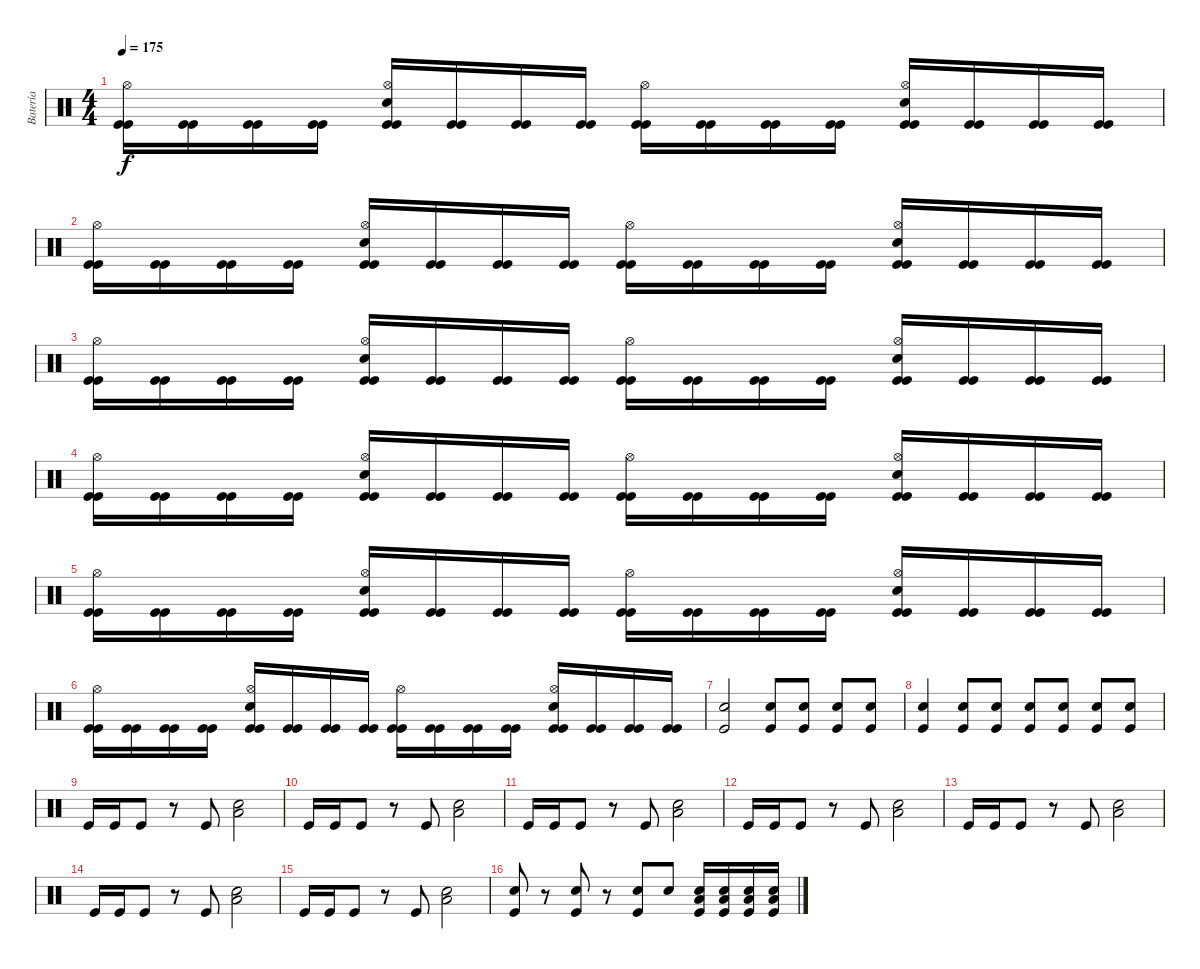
\track ("Batería" "Batería") {instrument percussion}
\staff {score}
\articulation defaults
\ts (4 4)
\tempo 175
\clef neutral
\ks c
("Kick (hit)" "Kick (hit)" "Hi-Hat (open)").16{dy f} ("Kick (hit)" "Kick (hit)").16 ("Kick (hit)" "Kick (hit)").16 ("Kick (hit)" "Kick (hit)").16 ("Kick (hit)" "Kick (hit)" "Snare (hit) 2" "Hi-Hat (open)").16 ("Kick (hit)" "Kick (hit)").16 ("Kick (hit)" "Kick (hit)").16 ("Kick (hit)" "Kick (hit)").16 ("Kick (hit)" "Kick (hit)" "Hi-Hat (open)").16 ("Kick (hit)" "Kick (hit)").16 ("Kick (hit)" "Kick (hit)").16 ("Kick (hit)" "Kick (hit)").16 ("Kick (hit)" "Kick (hit)" "Snare (hit) 2" "Hi-Hat (open)").16 ("Kick (hit)" "Kick (hit)").16 ("Kick (hit)" "Kick (hit)").16 ("Kick (hit)" "Kick (hit)").16 |
("Kick (hit)" "Kick (hit)" "Hi-Hat (open)").16 ("Kick (hit)" "Kick (hit)").16 ("Kick (hit)" "Kick (hit)").16 ("Kick (hit)" "Kick (hit)").16 ("Kick (hit)" "Kick (hit)" "Snare (hit) 2" "Hi-Hat (open)").16 ("Kick (hit)" "Kick (hit)").16 ("Kick (hit)" "Kick (hit)").16 ("Kick (hit)" "Kick (hit)").16 ("Kick (hit)" "Kick (hit)" "Hi-Hat (open)").16 ("Kick (hit)" "Kick (hit)").16 ("Kick (hit)" "Kick (hit)").16 ("Kick (hit)" "Kick (hit)").16 ("Kick (hit)" "Kick (hit)" "Snare (hit) 2" "Hi-Hat (open)").16 ("Kick (hit)" "Kick (hit)").16 ("Kick (hit)" "Kick (hit)").16 ("Kick (hit)" "Kick (hit)").16 |
("Kick (hit)" "Kick (hit)" "Hi-Hat (open)").16 ("Kick (hit)" "Kick (hit)").16 ("Kick (hit)" "Kick (hit)").16 ("Kick (hit)" "Kick (hit)").16 ("Kick (hit)" "Kick (hit)" "Snare (hit) 2" "Hi-Hat (open)").16 ("Kick (hit)" "Kick (hit)").16 ("Kick (hit)" "Kick (hit)").16 ("Kick (hit)" "Kick (hit)").16 ("Kick (hit)" "Kick (hit)" "Hi-Hat (open)").16 ("Kick (hit)" "Kick (hit)").16 ("Kick (hit)" "Kick (hit)").16 ("Kick (hit)" "Kick (hit)").16 ("Kick (hit)" "Kick (hit)" "Snare (hit) 2" "Hi-Hat (open)").16 ("Kick (hit)" "Kick (hit)").16 ("Kick (hit)" "Kick (hit)").16 ("Kick (hit)" "Kick (hit)").16 |
("Kick (hit)" "Kick (hit)" "Hi-Hat (open)").16 ("Kick (hit)" "Kick (hit)").16 ("Kick (hit)" "Kick (hit)").16 ("Kick (hit)" "Kick (hit)").16 ("Kick (hit)" "Kick (hit)" "Snare (hit) 2" "Hi-Hat (open)").16 ("Kick (hit)" "Kick (hit)").16 ("Kick (hit)" "Kick (hit)").16 ("Kick (hit)" "Kick (hit)").16 ("Kick (hit)" "Kick (hit)" "Hi-Hat (open)").16 ("Kick (hit)" "Kick (hit)").16 ("Kick (hit)" "Kick (hit)").16 ("Kick (hit)" "Kick (hit)").16 ("Kick (hit)" "Kick (hit)" "Snare (hit) 2" "Hi-Hat (open)").16 ("Kick (hit)" "Kick (hit)").16 ("Kick (hit)" "Kick (hit)").16 ("Kick (hit)" "Kick (hit)").16 |
("Kick (hit)" "Kick (hit)" "Hi-Hat (open)").16 ("Kick (hit)" "Kick (hit)").16 ("Kick (hit)" "Kick (hit)").16 ("Kick (hit)" "Kick (hit)").16 ("Kick (hit)" "Kick (hit)" "Snare (hit) 2" "Hi-Hat (open)").16 ("Kick (hit)" "Kick (hit)").16 ("Kick (hit)" "Kick (hit)").16 ("Kick (hit)" "Kick (hit)").16 ("Kick (hit)" "Kick (hit)" "Hi-Hat (open)").16 ("Kick (hit)" "Kick (hit)").16 ("Kick (hit)" "Kick (hit)").16 ("Kick (hit)" "Kick (hit)").16 ("Kick (hit)" "Kick (hit)" "Snare (hit) 2" "Hi-Hat (open)").16 ("Kick (hit)" "Kick (hit)").16 ("Kick (hit)" "Kick (hit)").16 ("Kick (hit)" "Kick (hit)").16 |
("Kick (hit)" "Kick (hit)" "Hi-Hat (open)").16 ("Kick (hit)" "Kick (hit)").16 ("Kick (hit)" "Kick (hit)").16 ("Kick (hit)" "Kick (hit)").16 ("Kick (hit)" "Kick (hit)" "Snare (hit) 2" "Hi-Hat (open)").16 ("Kick (hit)" "Kick (hit)").16 ("Kick (hit)" "Kick (hit)").16 ("Kick (hit)" "Kick (hit)").16 ("Kick (hit)" "Kick (hit)" "Hi-Hat (open)").16 ("Kick (hit)" "Kick (hit)").16 ("Kick (hit)" "Kick (hit)").16 ("Kick (hit)" "Kick (hit)").16 ("Kick (hit)" "Kick (hit)" "Snare (hit) 2" "Hi-Hat (open)").16 ("Kick (hit)" "Kick (hit)").16 ("Kick (hit)" "Kick (hit)").16 ("Kick (hit)" "Kick (hit)").16 |
("Kick (hit)" "Snare (hit) 2").2 ("Kick (hit)" "Snare (hit) 2").8 ("Kick (hit)" "Snare (hit) 2").8 ("Kick (hit)" "Snare (hit) 2").8 ("Kick (hit)" "Snare (hit) 2").8 |
("Kick (hit)" "Snare (hit) 2").4 ("Kick (hit)" "Snare (hit) 2").8 ("Kick (hit)" "Snare (hit) 2").8 ("Kick (hit)" "Snare (hit) 2").8 ("Kick (hit)" "Snare (hit) 2").8 ("Kick (hit)" "Snare (hit) 2").8 ("Kick (hit)" "Snare (hit) 2").8 |
"Kick (hit)".16 "Kick (hit)".16 "Kick (hit)".8 r.8 "Kick (hit)".8 ("Low Tom (hit)" "Snare (hit) 2").2 |
"Kick (hit)".16 "Kick (hit)".16 "Kick (hit)".8 r.8 "Kick (hit)".8 ("Low Tom (hit)" "Snare (hit) 2").2 |
"Kick (hit)".16 "Kick (hit)".16 "Kick (hit)".8 r.8 "Kick (hit)".8 ("Low Tom (hit)" "Snare (hit) 2").2 |
"Kick (hit)".16 "Kick (hit)".16 "Kick (hit)".8 r.8 "Kick (hit)".8 ("Low Tom (hit)" "Snare (hit) 2").2 |
"Kick (hit)".16 "Kick (hit)".16 "Kick (hit)".8 r.8 "Kick (hit)".8 ("Low Tom (hit)" "Snare (hit) 2").2 |
"Kick (hit)".16 "Kick (hit)".16 "Kick (hit)".8 r.8 "Kick (hit)".8 ("Low Tom (hit)" "Snare (hit) 2").2 |
"Kick (hit)".16 "Kick (hit)".16 "Kick (hit)".8 r.8 "Kick (hit)".8 ("Low Tom (hit)" "Snare (hit) 2").2 |
("Kick (hit)" "Snare (hit) 2").8 r.8 ("Kick (hit)" "Snare (hit) 2").8 r.8 ("Kick (hit)" "Snare (hit) 2").8 "Snare (hit) 2".8 ("Kick (hit)" "Snare (hit) 2" "Low Tom (hit)").16 ("Kick (hit)" "Snare (hit) 2" "Low Tom (hit)").16 ("Kick (hit)" "Snare (hit) 2" "Low Tom (hit)").16 ("Kick (hit)" "Snare (hit) 2" "Low Tom (hit)").16
